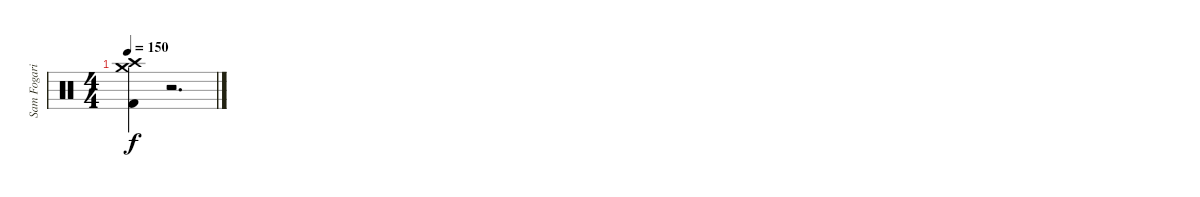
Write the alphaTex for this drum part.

\track ("Sam Fogarino" "Sam Fogari") {instrument percussion}
\staff {score}
\articulation defaults
\ts (4 4)
\tempo 150
\clef neutral
\ks c
("Crash high (hit)" "Crash medium (hit)" "Kick (hit) 2").4{dy f} r.2{d}
